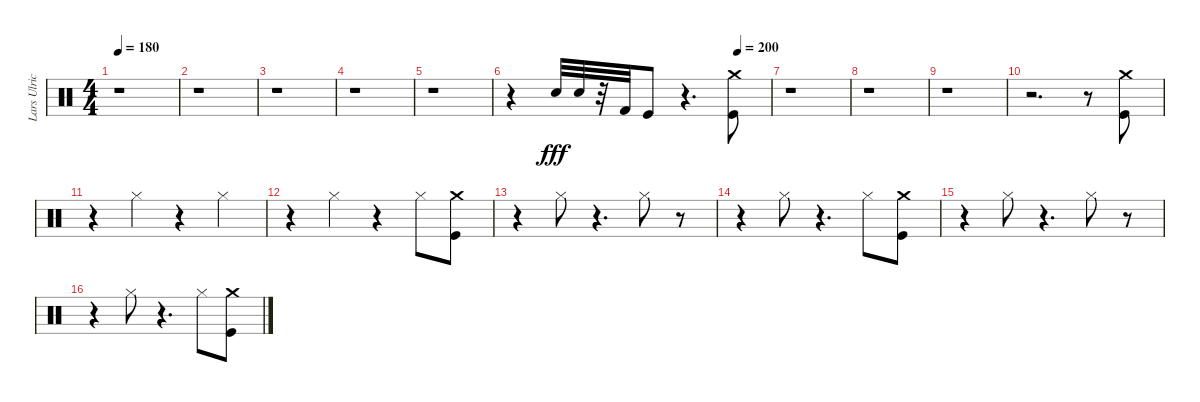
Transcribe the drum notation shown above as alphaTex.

\track ("Lars Ulrich" "Lars Ulric") {instrument percussion}
\staff {score}
\articulation defaults
\ts (4 4)
\tempo 180
\clef neutral
\ks c
r.1{dy fff} |
r.1 |
r.1 |
r.1 |
r.1 |
\tempo (200 0.875)
r.4 "Snare (hit) 2".32 "Snare (hit) 2".32 r.32 "Kick (hit) 2".32 "Kick (hit)".8 r.4{d} ("Crash medium (hit)" "Kick (hit)").8 |
r.1 |
r.1 |
r.1 |
r.2{d} r.8 ("Crash medium (hit)" "Kick (hit)").8 |
r.4 "Hi-Hat (closed)".4 r.4 "Hi-Hat (closed)".4 |
r.4 "Hi-Hat (closed)".4 r.4 "Hi-Hat (closed)".8 ("Crash medium (hit)" "Kick (hit)").8 |
r.4 "Hi-Hat (closed)".8 r.4{d} "Hi-Hat (closed)".8 r.8 |
r.4 "Hi-Hat (closed)".8 r.4{d} "Hi-Hat (closed)".8 ("Crash medium (hit)" "Kick (hit)").8 |
r.4 "Hi-Hat (closed)".8 r.4{d} "Hi-Hat (closed)".8 r.8 |
r.4 "Hi-Hat (closed)".8 r.4{d} "Hi-Hat (closed)".8 ("Crash medium (hit)" "Kick (hit)").8
